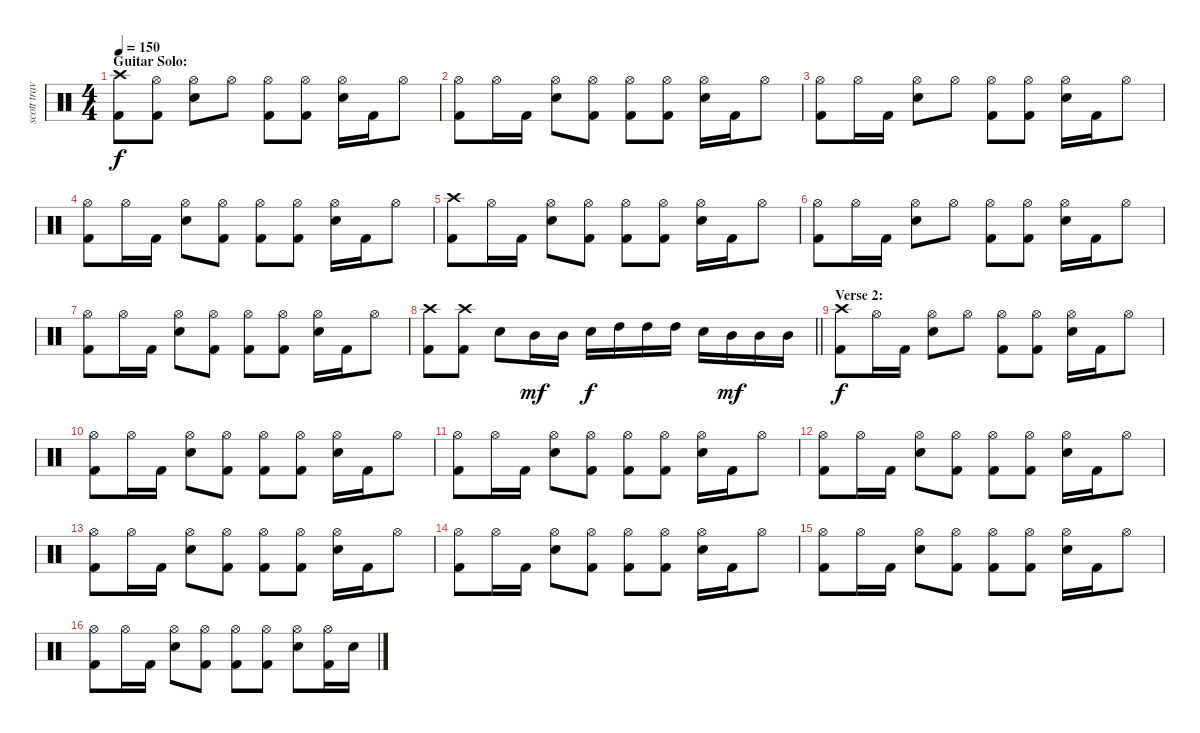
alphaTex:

\track ("scott travis" "scott trav") {instrument percussion}
\staff {score}
\articulation defaults
\ts (4 4)
\section ("" "Guitar Solo:")
\tempo 150
\clef neutral
\ks c
("Crash high (hit)" "Kick (hit) 2").8{dy f} ("Hi-Hat (open)" "Kick (hit) 2").8 ("Hi-Hat (open)" "Snare (hit) 2").8 "Hi-Hat (open)".8 ("Hi-Hat (open)" "Kick (hit) 2").8 ("Hi-Hat (open)" "Kick (hit) 2").8 ("Hi-Hat (open)" "Snare (hit) 2").16 "Kick (hit) 2".16 "Hi-Hat (open)".8 |
("Hi-Hat (open)" "Kick (hit) 2").8 "Hi-Hat (open)".16 "Kick (hit) 2".16 ("Hi-Hat (open)" "Snare (hit) 2").8 ("Hi-Hat (open)" "Kick (hit) 2").8 ("Hi-Hat (open)" "Kick (hit) 2").8 ("Hi-Hat (open)" "Kick (hit) 2").8 ("Hi-Hat (open)" "Snare (hit) 2").16 "Kick (hit) 2".16 "Hi-Hat (open)".8 |
("Hi-Hat (open)" "Kick (hit) 2").8 "Hi-Hat (open)".16 "Kick (hit) 2".16 ("Hi-Hat (open)" "Snare (hit) 2").8 "Hi-Hat (open)".8 ("Hi-Hat (open)" "Kick (hit) 2").8 ("Hi-Hat (open)" "Kick (hit) 2").8 ("Hi-Hat (open)" "Snare (hit) 2").16 "Kick (hit) 2".16 "Hi-Hat (open)".8 |
("Hi-Hat (open)" "Kick (hit) 2").8 "Hi-Hat (open)".16 "Kick (hit) 2".16 ("Hi-Hat (open)" "Snare (hit) 2").8 ("Hi-Hat (open)" "Kick (hit) 2").8 ("Hi-Hat (open)" "Kick (hit) 2").8 ("Hi-Hat (open)" "Kick (hit) 2").8 ("Hi-Hat (open)" "Snare (hit) 2").16 "Kick (hit) 2".16 "Hi-Hat (open)".8 |
("Crash high (hit)" "Kick (hit) 2").8 "Hi-Hat (open)".16 "Kick (hit) 2".16 ("Hi-Hat (open)" "Snare (hit) 2").8 ("Hi-Hat (open)" "Kick (hit) 2").8 ("Hi-Hat (open)" "Kick (hit) 2").8 ("Hi-Hat (open)" "Kick (hit) 2").8 ("Hi-Hat (open)" "Snare (hit) 2").16 "Kick (hit) 2".16 "Hi-Hat (open)".8 |
("Hi-Hat (open)" "Kick (hit) 2").8 "Hi-Hat (open)".16 "Kick (hit) 2".16 ("Hi-Hat (open)" "Snare (hit) 2").8 "Hi-Hat (open)".8 ("Hi-Hat (open)" "Kick (hit) 2").8 ("Hi-Hat (open)" "Kick (hit) 2").8 ("Hi-Hat (open)" "Snare (hit) 2").16 "Kick (hit) 2".16 "Hi-Hat (open)".8 |
("Hi-Hat (open)" "Kick (hit) 2").8 "Hi-Hat (open)".16 "Kick (hit) 2".16 ("Hi-Hat (open)" "Snare (hit) 2").8 ("Hi-Hat (open)" "Kick (hit) 2").8 ("Hi-Hat (open)" "Kick (hit) 2").8 ("Hi-Hat (open)" "Kick (hit) 2").8 ("Hi-Hat (open)" "Snare (hit) 2").16 "Kick (hit) 2".16 "Hi-Hat (open)".8 |
\barLineRight lightlight
("Crash high (hit)" "Kick (hit) 2").8 ("Crash high (hit)" "Kick (hit) 2").8 "Snare (hit) 2".8 "Mid Tom (hit)".16{dy mf} "Mid Tom (hit)".16 "Snare (hit) 2".16{dy f} "High Tom (hit)".16 "High Tom (hit)".16 "High Tom (hit)".16 "Snare (hit) 2".16 "Mid Tom (hit)".16{dy mf} "Mid Tom (hit)".16 "Mid Tom (hit)".16 |
\section ("" "Verse 2:")
("Crash high (hit)" "Kick (hit) 2").8{dy f} "Hi-Hat (open)".16 "Kick (hit) 2".16 ("Hi-Hat (open)" "Snare (hit) 2").8 "Hi-Hat (open)".8 ("Hi-Hat (open)" "Kick (hit) 2").8 ("Hi-Hat (open)" "Kick (hit) 2").8 ("Hi-Hat (open)" "Snare (hit) 2").16 "Kick (hit) 2".16 "Hi-Hat (open)".8 |
("Hi-Hat (open)" "Kick (hit) 2").8 "Hi-Hat (open)".16 "Kick (hit) 2".16 ("Hi-Hat (open)" "Snare (hit) 2").8 ("Hi-Hat (open)" "Kick (hit) 2").8 ("Hi-Hat (open)" "Kick (hit) 2").8 ("Hi-Hat (open)" "Kick (hit) 2").8 ("Hi-Hat (open)" "Snare (hit) 2").16 "Kick (hit) 2".16 "Hi-Hat (open)".8 |
("Hi-Hat (open)" "Kick (hit) 2").8 "Hi-Hat (open)".16 "Kick (hit) 2".16 ("Hi-Hat (open)" "Snare (hit) 2").8 ("Hi-Hat (open)" "Kick (hit) 2").8 ("Hi-Hat (open)" "Kick (hit) 2").8 ("Hi-Hat (open)" "Kick (hit) 2").8 ("Hi-Hat (open)" "Snare (hit) 2").16 "Kick (hit) 2".16 "Hi-Hat (open)".8 |
("Hi-Hat (open)" "Kick (hit) 2").8 "Hi-Hat (open)".16 "Kick (hit) 2".16 ("Hi-Hat (open)" "Snare (hit) 2").8 ("Hi-Hat (open)" "Kick (hit) 2").8 ("Hi-Hat (open)" "Kick (hit) 2").8 ("Hi-Hat (open)" "Kick (hit) 2").8 ("Hi-Hat (open)" "Snare (hit) 2").16 "Kick (hit) 2".16 "Hi-Hat (open)".8 |
("Hi-Hat (open)" "Kick (hit) 2").8 "Hi-Hat (open)".16 "Kick (hit) 2".16 ("Hi-Hat (open)" "Snare (hit) 2").8 ("Hi-Hat (open)" "Kick (hit) 2").8 ("Hi-Hat (open)" "Kick (hit) 2").8 ("Hi-Hat (open)" "Kick (hit) 2").8 ("Hi-Hat (open)" "Snare (hit) 2").16 "Kick (hit) 2".16 "Hi-Hat (open)".8 |
("Hi-Hat (open)" "Kick (hit) 2").8 "Hi-Hat (open)".16 "Kick (hit) 2".16 ("Hi-Hat (open)" "Snare (hit) 2").8 ("Hi-Hat (open)" "Kick (hit) 2").8 ("Hi-Hat (open)" "Kick (hit) 2").8 ("Hi-Hat (open)" "Kick (hit) 2").8 ("Hi-Hat (open)" "Snare (hit) 2").16 "Kick (hit) 2".16 "Hi-Hat (open)".8 |
("Hi-Hat (open)" "Kick (hit) 2").8 "Hi-Hat (open)".16 "Kick (hit) 2".16 ("Hi-Hat (open)" "Snare (hit) 2").8 ("Hi-Hat (open)" "Kick (hit) 2").8 ("Hi-Hat (open)" "Kick (hit) 2").8 ("Hi-Hat (open)" "Kick (hit) 2").8 ("Hi-Hat (open)" "Snare (hit) 2").16 "Kick (hit) 2".16 "Hi-Hat (open)".8 |
("Hi-Hat (open)" "Kick (hit) 2").8 "Hi-Hat (open)".16 "Kick (hit) 2".16 ("Hi-Hat (open)" "Snare (hit) 2").8 ("Hi-Hat (open)" "Kick (hit) 2").8 ("Hi-Hat (open)" "Kick (hit) 2").8 ("Hi-Hat (open)" "Kick (hit) 2").8 ("Hi-Hat (open)" "Snare (hit) 2").8 ("Hi-Hat (open)" "Kick (hit) 2").16 "Snare (hit) 2".16
